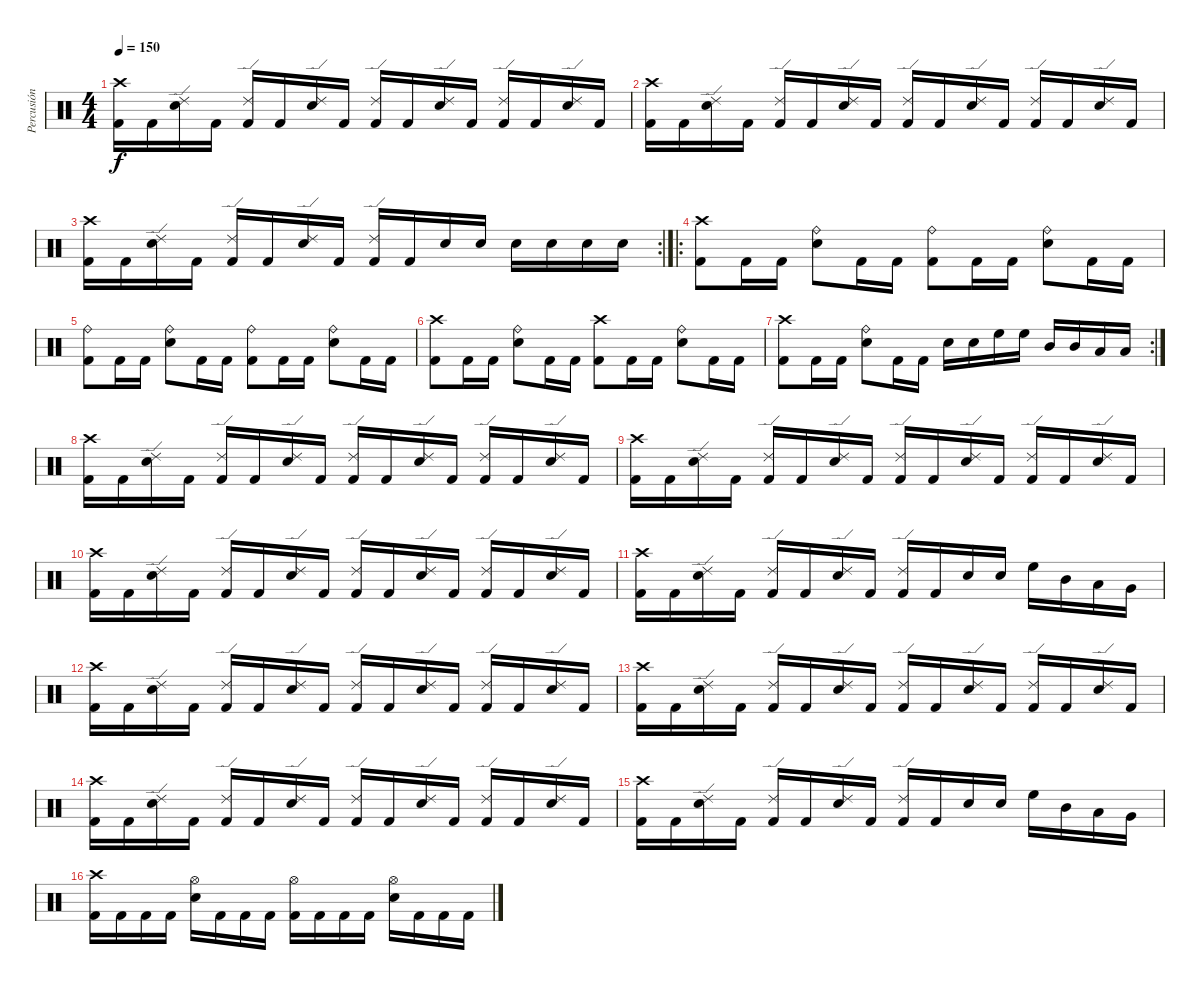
\track ("Percusión" "Percusión") {instrument percussion}
\staff {score}
\articulation defaults
\ts (4 4)
\tempo 150
\clef neutral
\ks c
("Crash high (hit)" "Kick (hit) 2").16{dy f} "Kick (hit) 2".16 ("Ride (edge) 2" "Electric Snare (hit)").16 "Kick (hit) 2".16 ("Ride (edge) 2" "Kick (hit) 2").16 "Kick (hit) 2".16 ("Ride (edge) 2" "Electric Snare (hit)").16 "Kick (hit) 2".16 ("Ride (edge) 2" "Kick (hit) 2").16 "Kick (hit) 2".16 ("Ride (edge) 2" "Electric Snare (hit)").16 "Kick (hit) 2".16 ("Ride (edge) 2" "Kick (hit) 2").16 "Kick (hit) 2".16 ("Ride (edge) 2" "Electric Snare (hit)").16 "Kick (hit) 2".16 |
("Crash high (hit)" "Kick (hit) 2").16 "Kick (hit) 2".16 ("Ride (edge) 2" "Electric Snare (hit)").16 "Kick (hit) 2".16 ("Ride (edge) 2" "Kick (hit) 2").16 "Kick (hit) 2".16 ("Ride (edge) 2" "Electric Snare (hit)").16 "Kick (hit) 2".16 ("Ride (edge) 2" "Kick (hit) 2").16 "Kick (hit) 2".16 ("Ride (edge) 2" "Electric Snare (hit)").16 "Kick (hit) 2".16 ("Ride (edge) 2" "Kick (hit) 2").16 "Kick (hit) 2".16 ("Ride (edge) 2" "Electric Snare (hit)").16 "Kick (hit) 2".16 |
\rc 2
("Crash high (hit)" "Kick (hit) 2").16 "Kick (hit) 2".16 ("Ride (edge) 2" "Electric Snare (hit)").16 "Kick (hit) 2".16 ("Ride (edge) 2" "Kick (hit) 2").16 "Kick (hit) 2".16 ("Ride (edge) 2" "Electric Snare (hit)").16 "Kick (hit) 2".16 ("Ride (edge) 2" "Kick (hit) 2").16 "Kick (hit) 2".16 "Electric Snare (hit)".16 "Electric Snare (hit)".16 "Electric Snare (hit)".16 "Electric Snare (hit)".16 "Electric Snare (hit)".16 "Electric Snare (hit)".16 |
\ro
("Crash high (hit)" "Kick (hit) 2").8 "Kick (hit) 2".16 "Kick (hit) 2".16 ("Ride (bell)" "Electric Snare (hit)").8 "Kick (hit) 2".16 "Kick (hit) 2".16 ("Ride (bell)" "Kick (hit) 2").8 "Kick (hit) 2".16 "Kick (hit) 2".16 ("Ride (bell)" "Electric Snare (hit)").8 "Kick (hit) 2".16 "Kick (hit) 2".16 |
("Ride (bell)" "Kick (hit) 2").8 "Kick (hit) 2".16 "Kick (hit) 2".16 ("Ride (bell)" "Electric Snare (hit)").8 "Kick (hit) 2".16 "Kick (hit) 2".16 ("Ride (bell)" "Kick (hit) 2").8 "Kick (hit) 2".16 "Kick (hit) 2".16 ("Ride (bell)" "Electric Snare (hit)").8 "Kick (hit) 2".16 "Kick (hit) 2".16 |
("Crash high (hit)" "Kick (hit) 2").8 "Kick (hit) 2".16 "Kick (hit) 2".16 ("Ride (bell)" "Electric Snare (hit)").8 "Kick (hit) 2".16 "Kick (hit) 2".16 ("Crash high (hit)" "Kick (hit) 2").8 "Kick (hit) 2".16 "Kick (hit) 2".16 ("Ride (bell)" "Electric Snare (hit)").8 "Kick (hit) 2".16 "Kick (hit) 2".16 |
\rc 2
("Crash high (hit)" "Kick (hit) 2").8 "Kick (hit) 2".16 "Kick (hit) 2".16 ("Ride (bell)" "Electric Snare (hit)").8 "Kick (hit) 2".16 "Kick (hit) 2".16 "Electric Snare (hit)".16 "Electric Snare (hit)".16 "High Floor Tom (hit)".16 "High Floor Tom (hit)".16 "Mid Tom (hit)".16 "Mid Tom (hit)".16 "Low Tom (hit)".16 "Low Tom (hit)".16 |
("Crash high (hit)" "Kick (hit) 2").16 "Kick (hit) 2".16 ("Ride (edge) 2" "Electric Snare (hit)").16 "Kick (hit) 2".16 ("Ride (edge) 2" "Kick (hit) 2").16 "Kick (hit) 2".16 ("Ride (edge) 2" "Electric Snare (hit)").16 "Kick (hit) 2".16 ("Ride (edge) 2" "Kick (hit) 2").16 "Kick (hit) 2".16 ("Ride (edge) 2" "Electric Snare (hit)").16 "Kick (hit) 2".16 ("Ride (edge) 2" "Kick (hit) 2").16 "Kick (hit) 2".16 ("Ride (edge) 2" "Electric Snare (hit)").16 "Kick (hit) 2".16 |
("Crash high (hit)" "Kick (hit) 2").16 "Kick (hit) 2".16 ("Ride (edge) 2" "Electric Snare (hit)").16 "Kick (hit) 2".16 ("Ride (edge) 2" "Kick (hit) 2").16 "Kick (hit) 2".16 ("Ride (edge) 2" "Electric Snare (hit)").16 "Kick (hit) 2".16 ("Ride (edge) 2" "Kick (hit) 2").16 "Kick (hit) 2".16 ("Ride (edge) 2" "Electric Snare (hit)").16 "Kick (hit) 2".16 ("Ride (edge) 2" "Kick (hit) 2").16 "Kick (hit) 2".16 ("Ride (edge) 2" "Electric Snare (hit)").16 "Kick (hit) 2".16 |
("Crash high (hit)" "Kick (hit) 2").16 "Kick (hit) 2".16 ("Ride (edge) 2" "Electric Snare (hit)").16 "Kick (hit) 2".16 ("Ride (edge) 2" "Kick (hit) 2").16 "Kick (hit) 2".16 ("Ride (edge) 2" "Electric Snare (hit)").16 "Kick (hit) 2".16 ("Ride (edge) 2" "Kick (hit) 2").16 "Kick (hit) 2".16 ("Ride (edge) 2" "Electric Snare (hit)").16 "Kick (hit) 2".16 ("Ride (edge) 2" "Kick (hit) 2").16 "Kick (hit) 2".16 ("Ride (edge) 2" "Electric Snare (hit)").16 "Kick (hit) 2".16 |
("Crash high (hit)" "Kick (hit) 2").16 "Kick (hit) 2".16 ("Ride (edge) 2" "Electric Snare (hit)").16 "Kick (hit) 2".16 ("Ride (edge) 2" "Kick (hit) 2").16 "Kick (hit) 2".16 ("Ride (edge) 2" "Electric Snare (hit)").16 "Kick (hit) 2".16 ("Ride (edge) 2" "Kick (hit) 2").16 "Kick (hit) 2".16 "Electric Snare (hit)".16 "Electric Snare (hit)".16 "High Floor Tom (hit)".16 "Mid Tom (hit)".16 "Low Tom (hit)".16 "Very Low Tom (hit)".16 |
("Crash high (hit)" "Kick (hit) 2").16 "Kick (hit) 2".16 ("Ride (edge) 2" "Electric Snare (hit)").16 "Kick (hit) 2".16 ("Ride (edge) 2" "Kick (hit) 2").16 "Kick (hit) 2".16 ("Ride (edge) 2" "Electric Snare (hit)").16 "Kick (hit) 2".16 ("Ride (edge) 2" "Kick (hit) 2").16 "Kick (hit) 2".16 ("Ride (edge) 2" "Electric Snare (hit)").16 "Kick (hit) 2".16 ("Ride (edge) 2" "Kick (hit) 2").16 "Kick (hit) 2".16 ("Ride (edge) 2" "Electric Snare (hit)").16 "Kick (hit) 2".16 |
("Crash high (hit)" "Kick (hit) 2").16 "Kick (hit) 2".16 ("Ride (edge) 2" "Electric Snare (hit)").16 "Kick (hit) 2".16 ("Ride (edge) 2" "Kick (hit) 2").16 "Kick (hit) 2".16 ("Ride (edge) 2" "Electric Snare (hit)").16 "Kick (hit) 2".16 ("Ride (edge) 2" "Kick (hit) 2").16 "Kick (hit) 2".16 ("Ride (edge) 2" "Electric Snare (hit)").16 "Kick (hit) 2".16 ("Ride (edge) 2" "Kick (hit) 2").16 "Kick (hit) 2".16 ("Ride (edge) 2" "Electric Snare (hit)").16 "Kick (hit) 2".16 |
("Crash high (hit)" "Kick (hit) 2").16 "Kick (hit) 2".16 ("Ride (edge) 2" "Electric Snare (hit)").16 "Kick (hit) 2".16 ("Ride (edge) 2" "Kick (hit) 2").16 "Kick (hit) 2".16 ("Ride (edge) 2" "Electric Snare (hit)").16 "Kick (hit) 2".16 ("Ride (edge) 2" "Kick (hit) 2").16 "Kick (hit) 2".16 ("Ride (edge) 2" "Electric Snare (hit)").16 "Kick (hit) 2".16 ("Ride (edge) 2" "Kick (hit) 2").16 "Kick (hit) 2".16 ("Ride (edge) 2" "Electric Snare (hit)").16 "Kick (hit) 2".16 |
("Crash high (hit)" "Kick (hit) 2").16 "Kick (hit) 2".16 ("Ride (edge) 2" "Electric Snare (hit)").16 "Kick (hit) 2".16 ("Ride (edge) 2" "Kick (hit) 2").16 "Kick (hit) 2".16 ("Ride (edge) 2" "Electric Snare (hit)").16 "Kick (hit) 2".16 ("Ride (edge) 2" "Kick (hit) 2").16 "Kick (hit) 2".16 "Electric Snare (hit)".16 "Electric Snare (hit)".16 "High Floor Tom (hit)".16 "Mid Tom (hit)".16 "Low Tom (hit)".16 "Very Low Tom (hit)".16 |
("Crash high (hit)" "Kick (hit) 2").16 "Kick (hit) 2".16 "Kick (hit) 2".16 "Kick (hit) 2".16 ("Hi-Hat (open)" "Electric Snare (hit)").16 "Kick (hit) 2".16 "Kick (hit) 2".16 "Kick (hit) 2".16 ("Hi-Hat (open)" "Kick (hit) 2").16 "Kick (hit) 2".16 "Kick (hit) 2".16 "Kick (hit) 2".16 ("Hi-Hat (open)" "Electric Snare (hit)").16 "Kick (hit) 2".16 "Kick (hit) 2".16 "Kick (hit) 2".16
